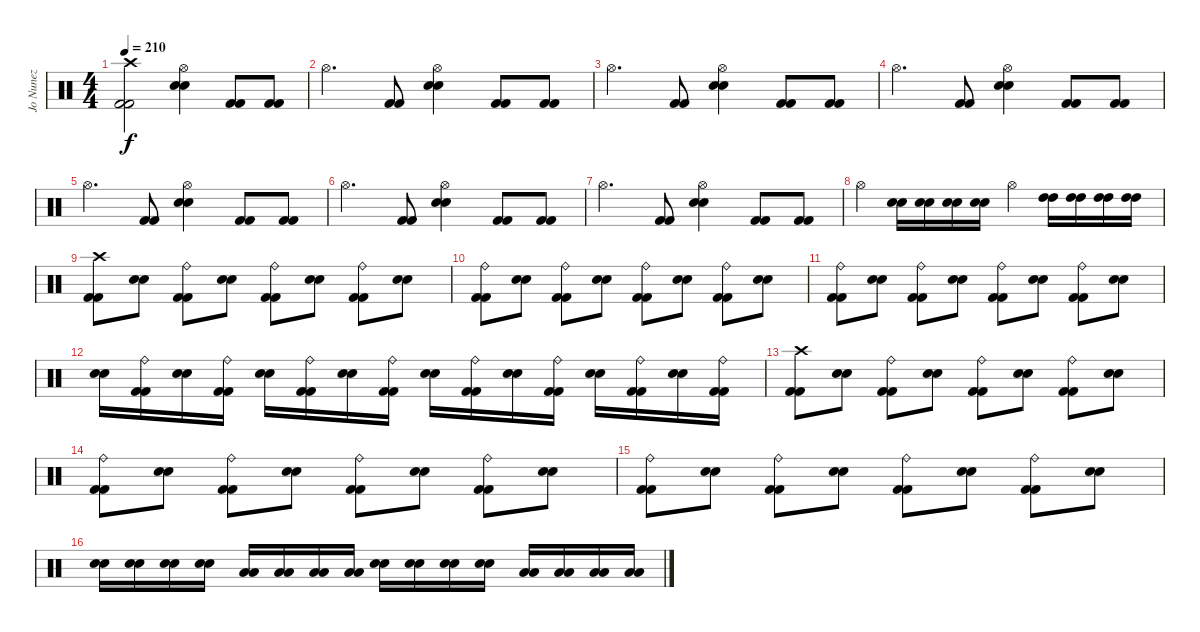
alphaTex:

\track ("Jo Nunez" "Jo Nunez") {instrument percussion}
\staff {score}
\articulation defaults
\ts (4 4)
\tempo 210
\clef neutral
\ks c
("Kick (hit) 2" "Kick (hit) 2" "Crash high (hit)").2{dy f} ("Electric Snare (hit)" "Electric Snare (hit)" "Hi-Hat (open)").4 ("Kick (hit) 2" "Kick (hit) 2").8 ("Kick (hit) 2" "Kick (hit) 2").8 |
"Hi-Hat (open)".4{d} ("Kick (hit) 2" "Kick (hit) 2").8 ("Electric Snare (hit)" "Electric Snare (hit)" "Hi-Hat (open)").4 ("Kick (hit) 2" "Kick (hit) 2").8 ("Kick (hit) 2" "Kick (hit) 2").8 |
"Hi-Hat (open)".4{d} ("Kick (hit) 2" "Kick (hit) 2").8 ("Electric Snare (hit)" "Electric Snare (hit)" "Hi-Hat (open)").4 ("Kick (hit) 2" "Kick (hit) 2").8 ("Kick (hit) 2" "Kick (hit) 2").8 |
"Hi-Hat (open)".4{d} ("Kick (hit) 2" "Kick (hit) 2").8 ("Electric Snare (hit)" "Electric Snare (hit)" "Hi-Hat (open)").4 ("Kick (hit) 2" "Kick (hit) 2").8 ("Kick (hit) 2" "Kick (hit) 2").8 |
"Hi-Hat (open)".4{d} ("Kick (hit) 2" "Kick (hit) 2").8 ("Electric Snare (hit)" "Electric Snare (hit)" "Hi-Hat (open)").4 ("Kick (hit) 2" "Kick (hit) 2").8 ("Kick (hit) 2" "Kick (hit) 2").8 |
"Hi-Hat (open)".4{d} ("Kick (hit) 2" "Kick (hit) 2").8 ("Electric Snare (hit)" "Electric Snare (hit)" "Hi-Hat (open)").4 ("Kick (hit) 2" "Kick (hit) 2").8 ("Kick (hit) 2" "Kick (hit) 2").8 |
"Hi-Hat (open)".4{d} ("Kick (hit) 2" "Kick (hit) 2").8 ("Electric Snare (hit)" "Electric Snare (hit)" "Hi-Hat (open)").4 ("Kick (hit) 2" "Kick (hit) 2").8 ("Kick (hit) 2" "Kick (hit) 2").8 |
"Hi-Hat (open)".4 ("Electric Snare (hit)" "Electric Snare (hit)").16 ("Electric Snare (hit)" "Electric Snare (hit)").16 ("Electric Snare (hit)" "Electric Snare (hit)").16 ("Electric Snare (hit)" "Electric Snare (hit)").16 "Hi-Hat (open)".4 ("High Tom (hit)" "High Tom (hit)").16 ("High Tom (hit)" "High Tom (hit)").16 ("High Tom (hit)" "High Tom (hit)").16 ("High Tom (hit)" "High Tom (hit)").16 |
("Kick (hit) 2" "Kick (hit) 2" "Crash high (hit)").8 ("Electric Snare (hit)" "Electric Snare (hit)").8 ("Kick (hit) 2" "Kick (hit) 2" "Ride (bell)").8 ("Electric Snare (hit)" "Electric Snare (hit)").8 ("Kick (hit) 2" "Kick (hit) 2" "Ride (bell)").8 ("Electric Snare (hit)" "Electric Snare (hit)").8 ("Kick (hit) 2" "Kick (hit) 2" "Ride (bell)").8 ("Electric Snare (hit)" "Electric Snare (hit)").8 |
("Kick (hit) 2" "Kick (hit) 2" "Ride (bell)").8 ("Electric Snare (hit)" "Electric Snare (hit)").8 ("Kick (hit) 2" "Kick (hit) 2" "Ride (bell)").8 ("Electric Snare (hit)" "Electric Snare (hit)").8 ("Kick (hit) 2" "Kick (hit) 2" "Ride (bell)").8 ("Electric Snare (hit)" "Electric Snare (hit)").8 ("Kick (hit) 2" "Kick (hit) 2" "Ride (bell)").8 ("Electric Snare (hit)" "Electric Snare (hit)").8 |
("Kick (hit) 2" "Kick (hit) 2" "Ride (bell)").8 ("Electric Snare (hit)" "Electric Snare (hit)").8 ("Kick (hit) 2" "Kick (hit) 2" "Ride (bell)").8 ("Electric Snare (hit)" "Electric Snare (hit)").8 ("Kick (hit) 2" "Kick (hit) 2" "Ride (bell)").8 ("Electric Snare (hit)" "Electric Snare (hit)").8 ("Kick (hit) 2" "Kick (hit) 2" "Ride (bell)").8 ("Electric Snare (hit)" "Electric Snare (hit)").8 |
("Electric Snare (hit)" "Electric Snare (hit)").16 ("Kick (hit) 2" "Kick (hit) 2" "Ride (bell)").16 ("Electric Snare (hit)" "Electric Snare (hit)").16 ("Kick (hit) 2" "Kick (hit) 2" "Ride (bell)").16 ("Electric Snare (hit)" "Electric Snare (hit)").16 ("Kick (hit) 2" "Kick (hit) 2" "Ride (bell)").16 ("Electric Snare (hit)" "Electric Snare (hit)").16 ("Kick (hit) 2" "Kick (hit) 2" "Ride (bell)").16 ("Electric Snare (hit)" "Electric Snare (hit)").16 ("Kick (hit) 2" "Kick (hit) 2" "Ride (bell)").16 ("Electric Snare (hit)" "Electric Snare (hit)").16 ("Kick (hit) 2" "Kick (hit) 2" "Ride (bell)").16 ("Electric Snare (hit)" "Electric Snare (hit)").16 ("Kick (hit) 2" "Kick (hit) 2" "Ride (bell)").16 ("Electric Snare (hit)" "Electric Snare (hit)").16 ("Kick (hit) 2" "Kick (hit) 2" "Ride (bell)").16 |
("Kick (hit) 2" "Kick (hit) 2" "Crash high (hit)").8 ("Electric Snare (hit)" "Electric Snare (hit)").8 ("Kick (hit) 2" "Kick (hit) 2" "Ride (bell)").8 ("Electric Snare (hit)" "Electric Snare (hit)").8 ("Kick (hit) 2" "Kick (hit) 2" "Ride (bell)").8 ("Electric Snare (hit)" "Electric Snare (hit)").8 ("Kick (hit) 2" "Kick (hit) 2" "Ride (bell)").8 ("Electric Snare (hit)" "Electric Snare (hit)").8 |
("Kick (hit) 2" "Kick (hit) 2" "Ride (bell)").8 ("Electric Snare (hit)" "Electric Snare (hit)").8 ("Kick (hit) 2" "Kick (hit) 2" "Ride (bell)").8 ("Electric Snare (hit)" "Electric Snare (hit)").8 ("Kick (hit) 2" "Kick (hit) 2" "Ride (bell)").8 ("Electric Snare (hit)" "Electric Snare (hit)").8 ("Kick (hit) 2" "Kick (hit) 2" "Ride (bell)").8 ("Electric Snare (hit)" "Electric Snare (hit)").8 |
("Kick (hit) 2" "Kick (hit) 2" "Ride (bell)").8 ("Electric Snare (hit)" "Electric Snare (hit)").8 ("Kick (hit) 2" "Kick (hit) 2" "Ride (bell)").8 ("Electric Snare (hit)" "Electric Snare (hit)").8 ("Kick (hit) 2" "Kick (hit) 2" "Ride (bell)").8 ("Electric Snare (hit)" "Electric Snare (hit)").8 ("Kick (hit) 2" "Kick (hit) 2" "Ride (bell)").8 ("Electric Snare (hit)" "Electric Snare (hit)").8 |
("Electric Snare (hit)" "Electric Snare (hit)").16 ("Electric Snare (hit)" "Electric Snare (hit)").16 ("Electric Snare (hit)" "Electric Snare (hit)").16 ("Electric Snare (hit)" "Electric Snare (hit)").16 ("Low Tom (hit)" "Low Tom (hit)").16 ("Low Tom (hit)" "Low Tom (hit)").16 ("Low Tom (hit)" "Low Tom (hit)").16 ("Low Tom (hit)" "Low Tom (hit)").16 ("Electric Snare (hit)" "Electric Snare (hit)").16 ("Electric Snare (hit)" "Electric Snare (hit)").16 ("Electric Snare (hit)" "Electric Snare (hit)").16 ("Electric Snare (hit)" "Electric Snare (hit)").16 ("Low Tom (hit)" "Low Tom (hit)").16 ("Low Tom (hit)" "Low Tom (hit)").16 ("Low Tom (hit)" "Low Tom (hit)").16 ("Low Tom (hit)" "Low Tom (hit)").16
